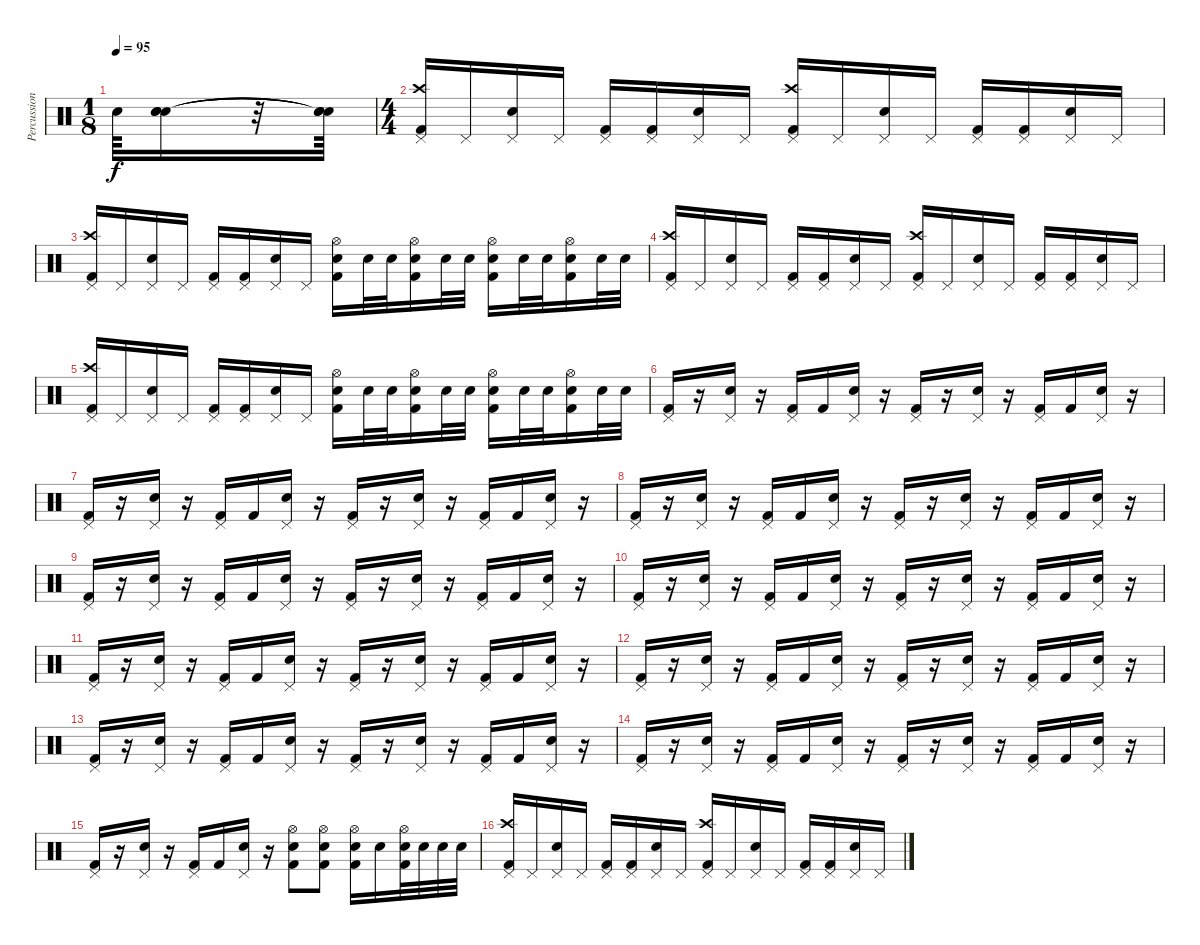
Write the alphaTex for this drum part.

\track ("Percussion" "Percussion") {instrument percussion}
\staff {score}
\articulation defaults
\ts (1 8)
\tempo 95
\clef neutral
\ks c "Snare (hit) 2".64{dy f}
("Snare (hit) 2" "Snare (hit) 2" "Snare (hit) 2").16 r.32 ("Snare (hit)"{t} "Snare (hit)"{t} "Snare (hit)"{t}).64 |
\ts (4 4)
("Pedal Hi-Hat (hit)" "Crash high (hit)" "Kick (hit) 2").16 "Pedal Hi-Hat (hit)".16 ("Pedal Hi-Hat (hit)" "Snare (hit) 2").16 "Pedal Hi-Hat (hit)".16 ("Pedal Hi-Hat (hit)" "Kick (hit) 2").16 ("Pedal Hi-Hat (hit)" "Kick (hit) 2").16 ("Pedal Hi-Hat (hit)" "Snare (hit) 2").16 "Pedal Hi-Hat (hit)".16 ("Pedal Hi-Hat (hit)" "Crash high (hit)" "Kick (hit) 2").16 "Pedal Hi-Hat (hit)".16 ("Pedal Hi-Hat (hit)" "Snare (hit) 2").16 "Pedal Hi-Hat (hit)".16 ("Pedal Hi-Hat (hit)" "Kick (hit) 2").16 ("Pedal Hi-Hat (hit)" "Kick (hit) 2").16 ("Pedal Hi-Hat (hit)" "Snare (hit) 2").16 "Pedal Hi-Hat (hit)".16 |
("Pedal Hi-Hat (hit)" "Crash high (hit)" "Kick (hit) 2").16 "Pedal Hi-Hat (hit)".16 ("Pedal Hi-Hat (hit)" "Snare (hit) 2").16 "Pedal Hi-Hat (hit)".16 ("Pedal Hi-Hat (hit)" "Kick (hit) 2").16 ("Pedal Hi-Hat (hit)" "Kick (hit) 2").16 ("Pedal Hi-Hat (hit)" "Snare (hit) 2").16 "Pedal Hi-Hat (hit)".16 ("Kick (hit) 2" "Hi-Hat (open)" "Snare (hit) 2").16 "Snare (hit) 2".32 "Snare (hit) 2".32 ("Kick (hit) 2" "Hi-Hat (open)" "Snare (hit) 2").16 "Snare (hit) 2".32 "Snare (hit) 2".32 ("Kick (hit) 2" "Hi-Hat (open)" "Snare (hit) 2").16 "Snare (hit) 2".32 "Snare (hit) 2".32 ("Kick (hit) 2" "Hi-Hat (open)" "Snare (hit) 2").16 "Snare (hit) 2".32 "Snare (hit) 2".32 |
("Pedal Hi-Hat (hit)" "Crash high (hit)" "Kick (hit) 2").16 "Pedal Hi-Hat (hit)".16 ("Pedal Hi-Hat (hit)" "Snare (hit) 2").16 "Pedal Hi-Hat (hit)".16 ("Pedal Hi-Hat (hit)" "Kick (hit) 2").16 ("Pedal Hi-Hat (hit)" "Kick (hit) 2").16 ("Pedal Hi-Hat (hit)" "Snare (hit) 2").16 "Pedal Hi-Hat (hit)".16 ("Pedal Hi-Hat (hit)" "Crash high (hit)" "Kick (hit) 2").16 "Pedal Hi-Hat (hit)".16 ("Pedal Hi-Hat (hit)" "Snare (hit) 2").16 "Pedal Hi-Hat (hit)".16 ("Pedal Hi-Hat (hit)" "Kick (hit) 2").16 ("Pedal Hi-Hat (hit)" "Kick (hit) 2").16 ("Pedal Hi-Hat (hit)" "Snare (hit) 2").16 "Pedal Hi-Hat (hit)".16 |
("Pedal Hi-Hat (hit)" "Crash high (hit)" "Kick (hit) 2").16 "Pedal Hi-Hat (hit)".16 ("Pedal Hi-Hat (hit)" "Snare (hit) 2").16 "Pedal Hi-Hat (hit)".16 ("Pedal Hi-Hat (hit)" "Kick (hit) 2").16 ("Pedal Hi-Hat (hit)" "Kick (hit) 2").16 ("Pedal Hi-Hat (hit)" "Snare (hit) 2").16 "Pedal Hi-Hat (hit)".16 ("Kick (hit) 2" "Hi-Hat (open)" "Snare (hit) 2").16 "Snare (hit) 2".32 "Snare (hit) 2".32 ("Kick (hit) 2" "Hi-Hat (open)" "Snare (hit) 2").16 "Snare (hit) 2".32 "Snare (hit) 2".32 ("Kick (hit) 2" "Hi-Hat (open)" "Snare (hit) 2").16 "Snare (hit) 2".32 "Snare (hit) 2".32 ("Kick (hit) 2" "Hi-Hat (open)" "Snare (hit) 2").16 "Snare (hit) 2".32 "Snare (hit) 2".32 |
("Pedal Hi-Hat (hit)" "Kick (hit) 2").16 r.16 ("Pedal Hi-Hat (hit)" "Snare (hit) 2").16 r.16 ("Pedal Hi-Hat (hit)" "Kick (hit) 2").16 "Kick (hit) 2".16 ("Pedal Hi-Hat (hit)" "Snare (hit) 2").16 r.16 ("Pedal Hi-Hat (hit)" "Kick (hit) 2").16 r.16 ("Pedal Hi-Hat (hit)" "Snare (hit) 2").16 r.16 ("Pedal Hi-Hat (hit)" "Kick (hit) 2").16 "Kick (hit) 2".16 ("Pedal Hi-Hat (hit)" "Snare (hit) 2").16 r.16 |
("Pedal Hi-Hat (hit)" "Kick (hit) 2").16 r.16 ("Pedal Hi-Hat (hit)" "Snare (hit) 2").16 r.16 ("Pedal Hi-Hat (hit)" "Kick (hit) 2").16 "Kick (hit) 2".16 ("Pedal Hi-Hat (hit)" "Snare (hit) 2").16 r.16 ("Pedal Hi-Hat (hit)" "Kick (hit) 2").16 r.16 ("Pedal Hi-Hat (hit)" "Snare (hit) 2").16 r.16 ("Pedal Hi-Hat (hit)" "Kick (hit) 2").16 "Kick (hit) 2".16 ("Pedal Hi-Hat (hit)" "Snare (hit) 2").16 r.16 |
("Pedal Hi-Hat (hit)" "Kick (hit) 2").16 r.16 ("Pedal Hi-Hat (hit)" "Snare (hit) 2").16 r.16 ("Pedal Hi-Hat (hit)" "Kick (hit) 2").16 "Kick (hit) 2".16 ("Pedal Hi-Hat (hit)" "Snare (hit) 2").16 r.16 ("Pedal Hi-Hat (hit)" "Kick (hit) 2").16 r.16 ("Pedal Hi-Hat (hit)" "Snare (hit) 2").16 r.16 ("Pedal Hi-Hat (hit)" "Kick (hit) 2").16 "Kick (hit) 2".16 ("Pedal Hi-Hat (hit)" "Snare (hit) 2").16 r.16 |
("Pedal Hi-Hat (hit)" "Kick (hit) 2").16 r.16 ("Pedal Hi-Hat (hit)" "Snare (hit) 2").16 r.16 ("Pedal Hi-Hat (hit)" "Kick (hit) 2").16 "Kick (hit) 2".16 ("Pedal Hi-Hat (hit)" "Snare (hit) 2").16 r.16 ("Pedal Hi-Hat (hit)" "Kick (hit) 2").16 r.16 ("Pedal Hi-Hat (hit)" "Snare (hit) 2").16 r.16 ("Pedal Hi-Hat (hit)" "Kick (hit) 2").16 "Kick (hit) 2".16 ("Pedal Hi-Hat (hit)" "Snare (hit) 2").16 r.16 |
("Pedal Hi-Hat (hit)" "Kick (hit) 2").16 r.16 ("Pedal Hi-Hat (hit)" "Snare (hit) 2").16 r.16 ("Pedal Hi-Hat (hit)" "Kick (hit) 2").16 "Kick (hit) 2".16 ("Pedal Hi-Hat (hit)" "Snare (hit) 2").16 r.16 ("Pedal Hi-Hat (hit)" "Kick (hit) 2").16 r.16 ("Pedal Hi-Hat (hit)" "Snare (hit) 2").16 r.16 ("Pedal Hi-Hat (hit)" "Kick (hit) 2").16 "Kick (hit) 2".16 ("Pedal Hi-Hat (hit)" "Snare (hit) 2").16 r.16 |
("Pedal Hi-Hat (hit)" "Kick (hit) 2").16 r.16 ("Pedal Hi-Hat (hit)" "Snare (hit) 2").16 r.16 ("Pedal Hi-Hat (hit)" "Kick (hit) 2").16 "Kick (hit) 2".16 ("Pedal Hi-Hat (hit)" "Snare (hit) 2").16 r.16 ("Pedal Hi-Hat (hit)" "Kick (hit) 2").16 r.16 ("Pedal Hi-Hat (hit)" "Snare (hit) 2").16 r.16 ("Pedal Hi-Hat (hit)" "Kick (hit) 2").16 "Kick (hit) 2".16 ("Pedal Hi-Hat (hit)" "Snare (hit) 2").16 r.16 |
("Pedal Hi-Hat (hit)" "Kick (hit) 2").16 r.16 ("Pedal Hi-Hat (hit)" "Snare (hit) 2").16 r.16 ("Pedal Hi-Hat (hit)" "Kick (hit) 2").16 "Kick (hit) 2".16 ("Pedal Hi-Hat (hit)" "Snare (hit) 2").16 r.16 ("Pedal Hi-Hat (hit)" "Kick (hit) 2").16 r.16 ("Pedal Hi-Hat (hit)" "Snare (hit) 2").16 r.16 ("Pedal Hi-Hat (hit)" "Kick (hit) 2").16 "Kick (hit) 2".16 ("Pedal Hi-Hat (hit)" "Snare (hit) 2").16 r.16 |
("Pedal Hi-Hat (hit)" "Kick (hit) 2").16 r.16 ("Pedal Hi-Hat (hit)" "Snare (hit) 2").16 r.16 ("Pedal Hi-Hat (hit)" "Kick (hit) 2").16 "Kick (hit) 2".16 ("Pedal Hi-Hat (hit)" "Snare (hit) 2").16 r.16 ("Pedal Hi-Hat (hit)" "Kick (hit) 2").16 r.16 ("Pedal Hi-Hat (hit)" "Snare (hit) 2").16 r.16 ("Pedal Hi-Hat (hit)" "Kick (hit) 2").16 "Kick (hit) 2".16 ("Pedal Hi-Hat (hit)" "Snare (hit) 2").16 r.16 |
("Pedal Hi-Hat (hit)" "Kick (hit) 2").16 r.16 ("Pedal Hi-Hat (hit)" "Snare (hit) 2").16 r.16 ("Pedal Hi-Hat (hit)" "Kick (hit) 2").16 "Kick (hit) 2".16 ("Pedal Hi-Hat (hit)" "Snare (hit) 2").16 r.16 ("Pedal Hi-Hat (hit)" "Kick (hit) 2").16 r.16 ("Pedal Hi-Hat (hit)" "Snare (hit) 2").16 r.16 ("Pedal Hi-Hat (hit)" "Kick (hit) 2").16 "Kick (hit) 2".16 ("Pedal Hi-Hat (hit)" "Snare (hit) 2").16 r.16 |
("Pedal Hi-Hat (hit)" "Kick (hit) 2").16 r.16 ("Pedal Hi-Hat (hit)" "Snare (hit) 2").16 r.16 ("Pedal Hi-Hat (hit)" "Kick (hit) 2").16 "Kick (hit) 2".16 ("Pedal Hi-Hat (hit)" "Snare (hit) 2").16 r.16 ("Snare (hit) 2" "Hi-Hat (open)" "Kick (hit) 2").8 ("Snare (hit) 2" "Hi-Hat (open)" "Kick (hit) 2").8 ("Snare (hit) 2" "Hi-Hat (open)" "Kick (hit) 2").16 "Snare (hit) 2".16 ("Snare (hit) 2" "Hi-Hat (open)" "Kick (hit) 2").32 "Snare (hit) 2".32 "Snare (hit) 2".32 "Snare (hit) 2".32 |
("Pedal Hi-Hat (hit)" "Crash high (hit)" "Kick (hit) 2").16 "Pedal Hi-Hat (hit)".16 ("Pedal Hi-Hat (hit)" "Snare (hit) 2").16 "Pedal Hi-Hat (hit)".16 ("Pedal Hi-Hat (hit)" "Kick (hit) 2").16 ("Pedal Hi-Hat (hit)" "Kick (hit) 2").16 ("Pedal Hi-Hat (hit)" "Snare (hit) 2").16 "Pedal Hi-Hat (hit)".16 ("Pedal Hi-Hat (hit)" "Crash high (hit)" "Kick (hit) 2").16 "Pedal Hi-Hat (hit)".16 ("Pedal Hi-Hat (hit)" "Snare (hit) 2").16 "Pedal Hi-Hat (hit)".16 ("Pedal Hi-Hat (hit)" "Kick (hit) 2").16 ("Pedal Hi-Hat (hit)" "Kick (hit) 2").16 ("Pedal Hi-Hat (hit)" "Snare (hit) 2").16 "Pedal Hi-Hat (hit)".16
